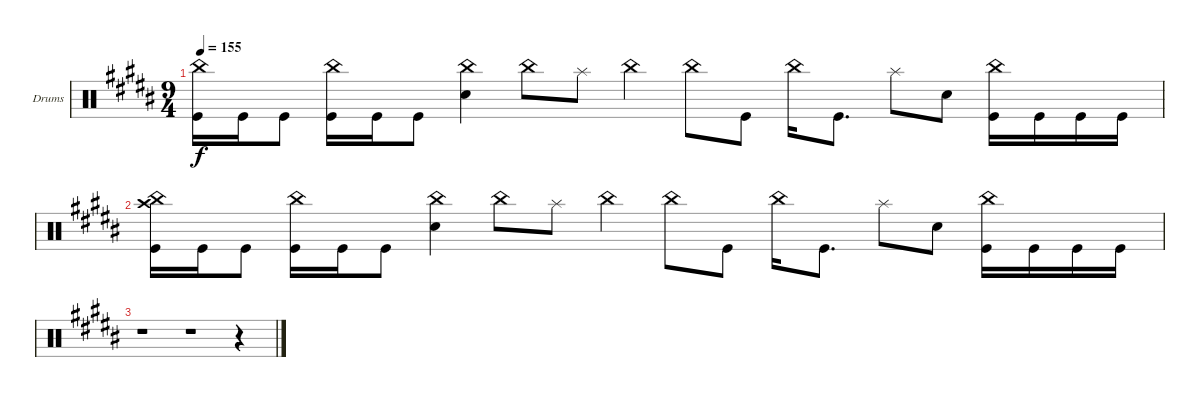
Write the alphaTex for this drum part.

\bracketExtendMode groupsimilarinstruments
\firstSystemTrackNameOrientation horizontal
\otherSystemsTrackNameOrientation horizontal
\track ("Navene Koperweis" "Drums") {instrument percussion}
\staff {score}
\articulation defaults
\ts (9 4)
\tempo 155
\clef neutral
\ks b
("China (hit)" "Kick (hit)").16{dy f} "Kick (hit)".16 "Kick (hit)".8 ("China (hit)" "Kick (hit)").16 "Kick (hit)".16 "Kick (hit)".8 ("China (hit)" "Snare (hit) 2").4 "China (hit)".8 "Splash (hit)".8 "China (hit)".4 "China (hit)".8 "Kick (hit)".8 "China (hit)".16 "Kick (hit)".8{d} "Splash (hit)".8 "Snare (hit) 2".8 ("China (hit)" "Kick (hit)").16 "Kick (hit)".16 "Kick (hit)".16 "Kick (hit)".16 |
("China (hit)" "Crash high (hit)" "Kick (hit)").16 "Kick (hit)".16 "Kick (hit)".8 ("China (hit)" "Kick (hit)").16 "Kick (hit)".16 "Kick (hit)".8 ("China (hit)" "Snare (hit) 2").4 "China (hit)".8 "Splash (hit)".8 "China (hit)".4 "China (hit)".8 "Kick (hit)".8 "China (hit)".16 "Kick (hit)".8{d} "Splash (hit)".8 "Snare (hit) 2".8 ("China (hit)" "Kick (hit)").16 "Kick (hit)".16 "Kick (hit)".16 "Kick (hit)".16 |
r.1 r.1 r.4
